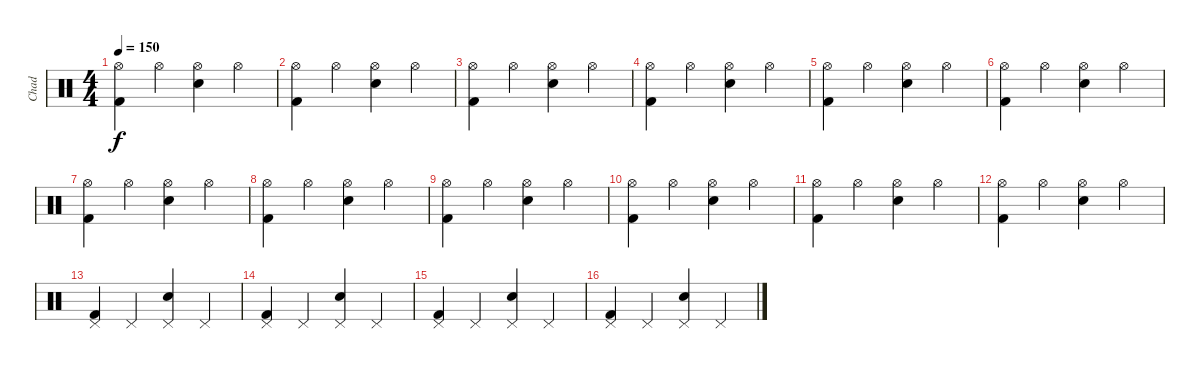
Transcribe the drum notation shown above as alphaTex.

\track ("Chad" "Chad") {instrument percussion}
\staff {score}
\articulation defaults
\ts (4 4)
\tempo 150
\clef neutral
\ks c
("Hi-Hat (open)" "Kick (hit) 2").4{dy f} "Hi-Hat (open)".4 ("Hi-Hat (open)" "Snare (hit) 2").4 "Hi-Hat (open)".4 |
("Hi-Hat (open)" "Kick (hit) 2").4 "Hi-Hat (open)".4 ("Hi-Hat (open)" "Snare (hit) 2").4 "Hi-Hat (open)".4 |
("Hi-Hat (open)" "Kick (hit) 2").4 "Hi-Hat (open)".4 ("Hi-Hat (open)" "Snare (hit) 2").4 "Hi-Hat (open)".4 |
("Hi-Hat (open)" "Kick (hit) 2").4 "Hi-Hat (open)".4 ("Hi-Hat (open)" "Snare (hit) 2").4 "Hi-Hat (open)".4 |
("Hi-Hat (open)" "Kick (hit) 2").4 "Hi-Hat (open)".4 ("Hi-Hat (open)" "Snare (hit) 2").4 "Hi-Hat (open)".4 |
("Hi-Hat (open)" "Kick (hit) 2").4 "Hi-Hat (open)".4 ("Hi-Hat (open)" "Snare (hit) 2").4 "Hi-Hat (open)".4 |
("Hi-Hat (open)" "Kick (hit) 2").4 "Hi-Hat (open)".4 ("Hi-Hat (open)" "Snare (hit) 2").4 "Hi-Hat (open)".4 |
("Hi-Hat (open)" "Kick (hit) 2").4 "Hi-Hat (open)".4 ("Hi-Hat (open)" "Snare (hit) 2").4 "Hi-Hat (open)".4 |
("Hi-Hat (open)" "Kick (hit) 2").4 "Hi-Hat (open)".4 ("Hi-Hat (open)" "Snare (hit) 2").4 "Hi-Hat (open)".4 |
("Hi-Hat (open)" "Kick (hit) 2").4 "Hi-Hat (open)".4 ("Hi-Hat (open)" "Snare (hit) 2").4 "Hi-Hat (open)".4 |
("Hi-Hat (open)" "Kick (hit) 2").4 "Hi-Hat (open)".4 ("Hi-Hat (open)" "Snare (hit) 2").4 "Hi-Hat (open)".4 |
("Hi-Hat (open)" "Kick (hit) 2").4 "Hi-Hat (open)".4 ("Hi-Hat (open)" "Snare (hit) 2").4 "Hi-Hat (open)".4 |
("Pedal Hi-Hat (hit)" "Kick (hit) 2").4 "Pedal Hi-Hat (hit)".4 ("Pedal Hi-Hat (hit)" "Snare (hit) 2").4 "Pedal Hi-Hat (hit)".4 |
("Pedal Hi-Hat (hit)" "Kick (hit) 2").4 "Pedal Hi-Hat (hit)".4 ("Pedal Hi-Hat (hit)" "Snare (hit) 2").4 "Pedal Hi-Hat (hit)".4 |
("Pedal Hi-Hat (hit)" "Kick (hit) 2").4 "Pedal Hi-Hat (hit)".4 ("Pedal Hi-Hat (hit)" "Snare (hit) 2").4 "Pedal Hi-Hat (hit)".4 |
("Pedal Hi-Hat (hit)" "Kick (hit) 2").4 "Pedal Hi-Hat (hit)".4 ("Pedal Hi-Hat (hit)" "Snare (hit) 2").4 "Pedal Hi-Hat (hit)".4
